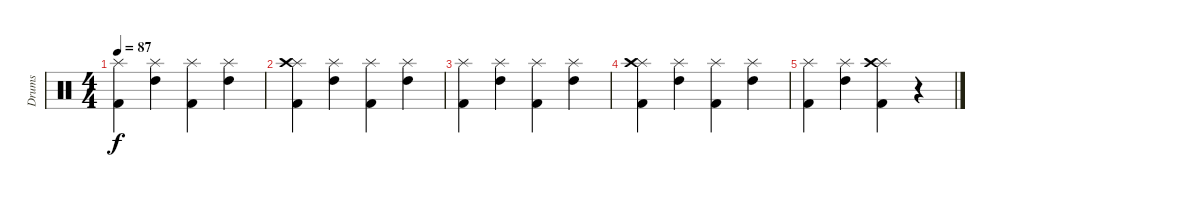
\track ("Drums" "Drums") {instrument percussion}
\staff {score}
\articulation defaults
\ts (4 4)
\tempo 87
\clef neutral
\ks c
("Splash (hit)" "Kick (hit) 2").4{dy f} ("Splash (hit)" "High Tom (hit)").4 ("Splash (hit)" "Kick (hit) 2").4 ("Splash (hit)" "High Tom (hit)").4 |
("Splash (hit)" "Crash high (hit)" "Kick (hit) 2").4 ("Splash (hit)" "High Tom (hit)").4 ("Splash (hit)" "Kick (hit) 2").4 ("Splash (hit)" "High Tom (hit)").4 |
("Splash (hit)" "Kick (hit) 2").4 ("Splash (hit)" "High Tom (hit)").4 ("Splash (hit)" "Kick (hit) 2").4 ("Splash (hit)" "High Tom (hit)").4 |
("Splash (hit)" "Crash high (hit)" "Kick (hit) 2").4 ("Splash (hit)" "High Tom (hit)").4 ("Splash (hit)" "Kick (hit) 2").4 ("Splash (hit)" "High Tom (hit)").4 |
("Splash (hit)" "Kick (hit) 2").4 ("Splash (hit)" "High Tom (hit)").4 ("Splash (hit)" "Crash high (hit)" "Kick (hit) 2").4 r.4
